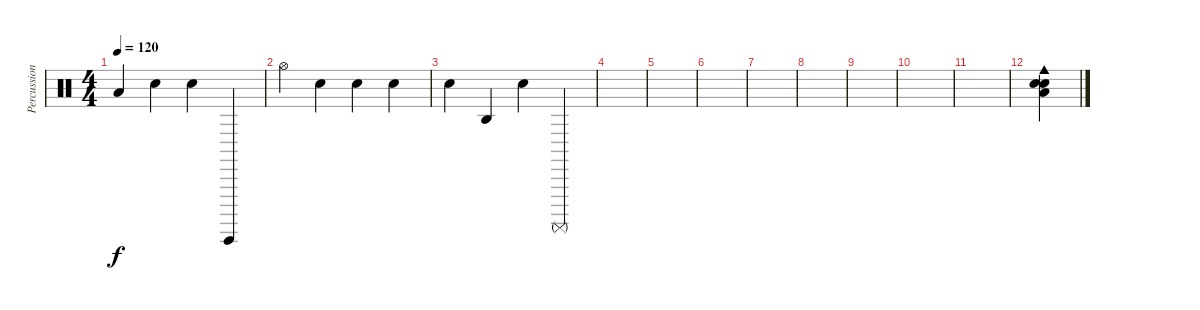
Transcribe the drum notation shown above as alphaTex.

\track ("Percussion" "Percussion") {instrument percussion}
\staff {score}
\articulation defaults
\ts (4 4)
\tempo 120
\clef neutral
\ks c "Low Tom (hit)".4{dy f} "Metronome (bell)".4 "Snare (hit)".4 "Guiro (hit)".4
|
"Hi-Hat (open)".4 "Snare (hit)".4 "Snare (hit)".4 "Snare (hit)".4 |
"Metronome (bell)".4 "Agogo high (hit)".4 "Metronome (bell)".4 "Surdo (mute)".4 |
|
|
|
|
|
|
|
|
("Cowbell medium (hit)" "Metronome (bell)" "Low Tom (hit)" "Metronome (bell)").4
